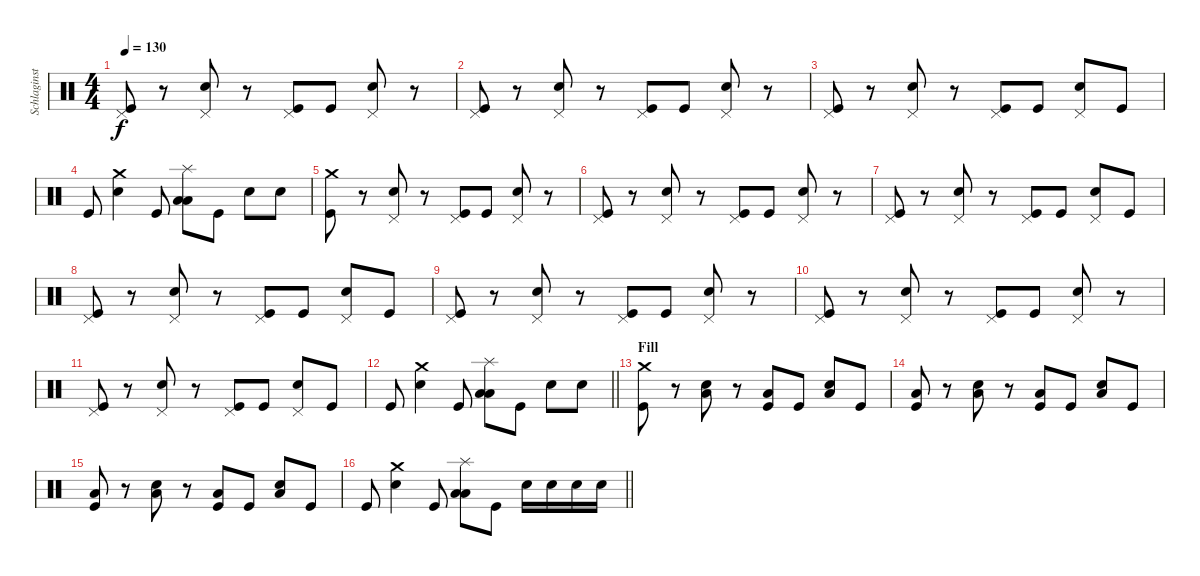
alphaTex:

\track ("Schlaginstrumente - Auswahl" "Schlaginst") {instrument percussion}
\staff {score}
\articulation defaults
\ts (4 4)
\tempo 130
\clef neutral
\ks c
("Pedal Hi-Hat (hit)" "Kick (hit)").8{dy f} r.8 ("Pedal Hi-Hat (hit)" "Snare (hit) 2").8 r.8 ("Pedal Hi-Hat (hit)" "Kick (hit)").8 "Kick (hit)".8 ("Pedal Hi-Hat (hit)" "Snare (hit) 2").8 r.8 |
("Pedal Hi-Hat (hit)" "Kick (hit)").8 r.8 ("Pedal Hi-Hat (hit)" "Snare (hit) 2").8 r.8 ("Pedal Hi-Hat (hit)" "Kick (hit)").8 "Kick (hit)".8 ("Pedal Hi-Hat (hit)" "Snare (hit) 2").8 r.8 |
("Pedal Hi-Hat (hit)" "Kick (hit)").8 r.8 ("Pedal Hi-Hat (hit)" "Snare (hit) 2").8 r.8 ("Pedal Hi-Hat (hit)" "Kick (hit)").8 "Kick (hit)".8 ("Pedal Hi-Hat (hit)" "Snare (hit) 2").8 "Kick (hit)".8 |
"Kick (hit)".8 ("Crash medium (hit)" "Snare (hit) 2").4 "Kick (hit)".8 ("Splash (hit)" "Low Tom (hit)" "Low Tom (hit)").8 "Kick (hit)".8 "Snare (hit) 2".8 "Snare (hit) 2".8 |
("Crash medium (hit)" "Kick (hit)").8 r.8 ("Pedal Hi-Hat (hit)" "Snare (hit) 2").8 r.8 ("Pedal Hi-Hat (hit)" "Kick (hit)").8 "Kick (hit)".8 ("Pedal Hi-Hat (hit)" "Snare (hit) 2").8 r.8 |
("Pedal Hi-Hat (hit)" "Kick (hit)").8 r.8 ("Pedal Hi-Hat (hit)" "Snare (hit) 2").8 r.8 ("Pedal Hi-Hat (hit)" "Kick (hit)").8 "Kick (hit)".8 ("Pedal Hi-Hat (hit)" "Snare (hit) 2").8 r.8 |
("Pedal Hi-Hat (hit)" "Kick (hit)").8 r.8 ("Pedal Hi-Hat (hit)" "Snare (hit) 2").8 r.8 ("Pedal Hi-Hat (hit)" "Kick (hit)").8 "Kick (hit)".8 ("Pedal Hi-Hat (hit)" "Snare (hit) 2").8 "Kick (hit)".8 |
("Pedal Hi-Hat (hit)" "Kick (hit)").8 r.8 ("Pedal Hi-Hat (hit)" "Snare (hit) 2").8 r.8 ("Pedal Hi-Hat (hit)" "Kick (hit)").8 "Kick (hit)".8 ("Pedal Hi-Hat (hit)" "Snare (hit) 2").8 "Kick (hit)".8 |
("Pedal Hi-Hat (hit)" "Kick (hit)").8 r.8 ("Pedal Hi-Hat (hit)" "Snare (hit) 2").8 r.8 ("Pedal Hi-Hat (hit)" "Kick (hit)").8 "Kick (hit)".8 ("Pedal Hi-Hat (hit)" "Snare (hit) 2").8 r.8 |
("Pedal Hi-Hat (hit)" "Kick (hit)").8 r.8 ("Pedal Hi-Hat (hit)" "Snare (hit) 2").8 r.8 ("Pedal Hi-Hat (hit)" "Kick (hit)").8 "Kick (hit)".8 ("Pedal Hi-Hat (hit)" "Snare (hit) 2").8 r.8 |
("Pedal Hi-Hat (hit)" "Kick (hit)").8 r.8 ("Pedal Hi-Hat (hit)" "Snare (hit) 2").8 r.8 ("Pedal Hi-Hat (hit)" "Kick (hit)").8 "Kick (hit)".8 ("Pedal Hi-Hat (hit)" "Snare (hit) 2").8 "Kick (hit)".8 |
\barLineRight lightlight "Kick (hit)".8
("Crash medium (hit)" "Snare (hit) 2").4 "Kick (hit)".8 ("Splash (hit)" "Low Tom (hit)" "Low Tom (hit)").8 "Kick (hit)".8 "Snare (hit) 2".8 "Snare (hit) 2".8 |
\section ("" "Fill ")
("Crash medium (hit)" "Kick (hit)").8 r.8 ("Low Tom (hit)" "Snare (hit) 2").8 r.8 ("Low Tom (hit)" "Kick (hit)").8 "Kick (hit)".8 ("Low Tom (hit)" "Snare (hit) 2").8 "Kick (hit)".8 |
("Low Tom (hit)" "Kick (hit)").8 r.8 ("Low Tom (hit)" "Snare (hit) 2").8 r.8 ("Low Tom (hit)" "Kick (hit)").8 "Kick (hit)".8 ("Low Tom (hit)" "Snare (hit) 2").8 "Kick (hit)".8 |
("Low Tom (hit)" "Kick (hit)").8 r.8 ("Low Tom (hit)" "Snare (hit) 2").8 r.8 ("Low Tom (hit)" "Kick (hit)").8 "Kick (hit)".8 ("Low Tom (hit)" "Snare (hit) 2").8 "Kick (hit)".8 |
\barLineRight lightlight "Kick (hit)".8
("Crash medium (hit)" "Snare (hit) 2").4 "Kick (hit)".8 ("Splash (hit)" "Low Tom (hit)" "Low Tom (hit)").8 "Kick (hit)".8 "Snare (hit) 2".16 "Snare (hit) 2".16 "Snare (hit) 2".16 "Snare (hit) 2".16
